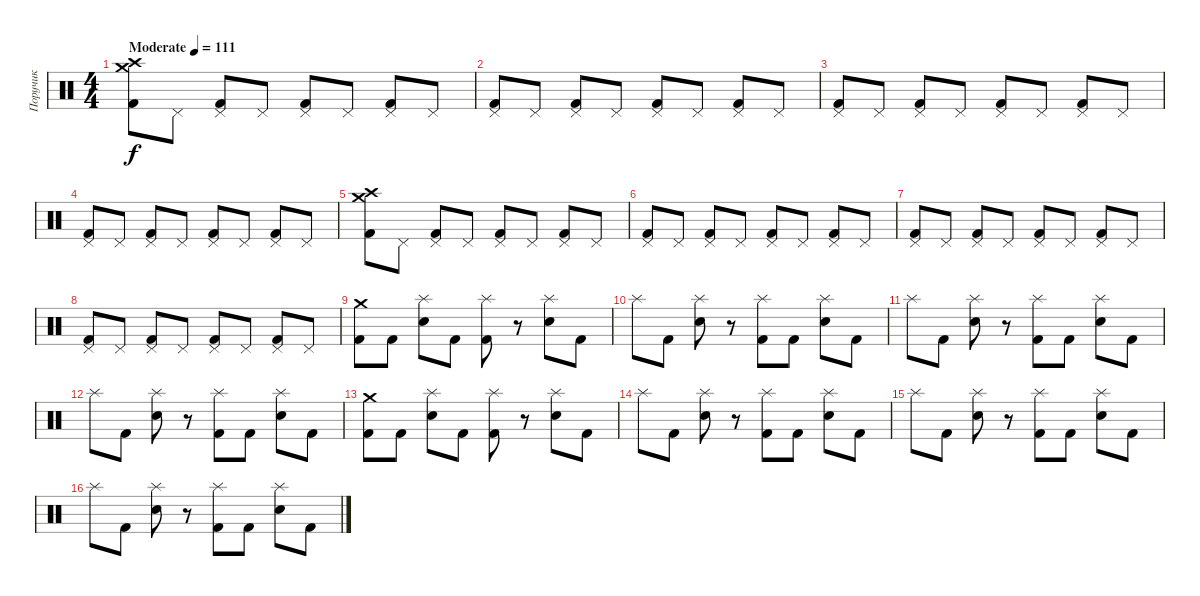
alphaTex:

\track ("Поручик" "Поручик") {instrument percussion}
\staff {score}
\articulation defaults
\ts (4 4)
\tempo (111 "Moderate")
\clef neutral
\ks c
("Crash medium (hit)" "Crash high (hit)" "Kick (hit) 2").8{dy f} "Pedal Hi-Hat (hit)".8 ("Pedal Hi-Hat (hit)" "Kick (hit) 2").8 "Pedal Hi-Hat (hit)".8 ("Pedal Hi-Hat (hit)" "Kick (hit) 2").8 "Pedal Hi-Hat (hit)".8 ("Pedal Hi-Hat (hit)" "Kick (hit) 2").8 "Pedal Hi-Hat (hit)".8 |
("Pedal Hi-Hat (hit)" "Kick (hit) 2").8 "Pedal Hi-Hat (hit)".8 ("Pedal Hi-Hat (hit)" "Kick (hit) 2").8 "Pedal Hi-Hat (hit)".8 ("Pedal Hi-Hat (hit)" "Kick (hit) 2").8 "Pedal Hi-Hat (hit)".8 ("Pedal Hi-Hat (hit)" "Kick (hit) 2").8 "Pedal Hi-Hat (hit)".8 |
("Pedal Hi-Hat (hit)" "Kick (hit) 2").8 "Pedal Hi-Hat (hit)".8 ("Pedal Hi-Hat (hit)" "Kick (hit) 2").8 "Pedal Hi-Hat (hit)".8 ("Pedal Hi-Hat (hit)" "Kick (hit) 2").8 "Pedal Hi-Hat (hit)".8 ("Pedal Hi-Hat (hit)" "Kick (hit) 2").8 "Pedal Hi-Hat (hit)".8 |
("Pedal Hi-Hat (hit)" "Kick (hit) 2").8 "Pedal Hi-Hat (hit)".8 ("Pedal Hi-Hat (hit)" "Kick (hit) 2").8 "Pedal Hi-Hat (hit)".8 ("Pedal Hi-Hat (hit)" "Kick (hit) 2").8 "Pedal Hi-Hat (hit)".8 ("Pedal Hi-Hat (hit)" "Kick (hit) 2").8 "Pedal Hi-Hat (hit)".8 |
("Crash medium (hit)" "Crash high (hit)" "Kick (hit) 2").8 "Pedal Hi-Hat (hit)".8 ("Pedal Hi-Hat (hit)" "Kick (hit) 2").8 "Pedal Hi-Hat (hit)".8 ("Pedal Hi-Hat (hit)" "Kick (hit) 2").8 "Pedal Hi-Hat (hit)".8 ("Pedal Hi-Hat (hit)" "Kick (hit) 2").8 "Pedal Hi-Hat (hit)".8 |
("Pedal Hi-Hat (hit)" "Kick (hit) 2").8 "Pedal Hi-Hat (hit)".8 ("Pedal Hi-Hat (hit)" "Kick (hit) 2").8 "Pedal Hi-Hat (hit)".8 ("Pedal Hi-Hat (hit)" "Kick (hit) 2").8 "Pedal Hi-Hat (hit)".8 ("Pedal Hi-Hat (hit)" "Kick (hit) 2").8 "Pedal Hi-Hat (hit)".8 |
("Pedal Hi-Hat (hit)" "Kick (hit) 2").8 "Pedal Hi-Hat (hit)".8 ("Pedal Hi-Hat (hit)" "Kick (hit) 2").8 "Pedal Hi-Hat (hit)".8 ("Pedal Hi-Hat (hit)" "Kick (hit) 2").8 "Pedal Hi-Hat (hit)".8 ("Pedal Hi-Hat (hit)" "Kick (hit) 2").8 "Pedal Hi-Hat (hit)".8 |
("Pedal Hi-Hat (hit)" "Kick (hit) 2").8 "Pedal Hi-Hat (hit)".8 ("Pedal Hi-Hat (hit)" "Kick (hit) 2").8 "Pedal Hi-Hat (hit)".8 ("Pedal Hi-Hat (hit)" "Kick (hit) 2").8 "Pedal Hi-Hat (hit)".8 ("Pedal Hi-Hat (hit)" "Kick (hit) 2").8 "Pedal Hi-Hat (hit)".8 |
("Crash medium (hit)" "Kick (hit) 2").8 "Kick (hit) 2".8 ("Splash (hit)" "Electric Snare (hit)").8 "Kick (hit) 2".8 ("Splash (hit)" "Kick (hit) 2").8 r.8 ("Splash (hit)" "Electric Snare (hit)").8 "Kick (hit) 2".8 |
"Splash (hit)".8 "Kick (hit) 2".8 ("Splash (hit)" "Electric Snare (hit)").8 r.8 ("Splash (hit)" "Kick (hit) 2").8 "Kick (hit) 2".8 ("Splash (hit)" "Electric Snare (hit)").8 "Kick (hit) 2".8 |
"Splash (hit)".8 "Kick (hit) 2".8 ("Splash (hit)" "Electric Snare (hit)").8 r.8 ("Splash (hit)" "Kick (hit) 2").8 "Kick (hit) 2".8 ("Splash (hit)" "Electric Snare (hit)").8 "Kick (hit) 2".8 |
"Splash (hit)".8 "Kick (hit) 2".8 ("Splash (hit)" "Electric Snare (hit)").8 r.8 ("Splash (hit)" "Kick (hit) 2").8 "Kick (hit) 2".8 ("Splash (hit)" "Electric Snare (hit)").8 "Kick (hit) 2".8 |
("Crash medium (hit)" "Kick (hit) 2").8 "Kick (hit) 2".8 ("Splash (hit)" "Electric Snare (hit)").8 "Kick (hit) 2".8 ("Splash (hit)" "Kick (hit) 2").8 r.8 ("Splash (hit)" "Electric Snare (hit)").8 "Kick (hit) 2".8 |
"Splash (hit)".8 "Kick (hit) 2".8 ("Splash (hit)" "Electric Snare (hit)").8 r.8 ("Splash (hit)" "Kick (hit) 2").8 "Kick (hit) 2".8 ("Splash (hit)" "Electric Snare (hit)").8 "Kick (hit) 2".8 |
"Splash (hit)".8 "Kick (hit) 2".8 ("Splash (hit)" "Electric Snare (hit)").8 r.8 ("Splash (hit)" "Kick (hit) 2").8 "Kick (hit) 2".8 ("Splash (hit)" "Electric Snare (hit)").8 "Kick (hit) 2".8 |
"Splash (hit)".8 "Kick (hit) 2".8 ("Splash (hit)" "Electric Snare (hit)").8 r.8 ("Splash (hit)" "Kick (hit) 2").8 "Kick (hit) 2".8 ("Splash (hit)" "Electric Snare (hit)").8 "Kick (hit) 2".8
